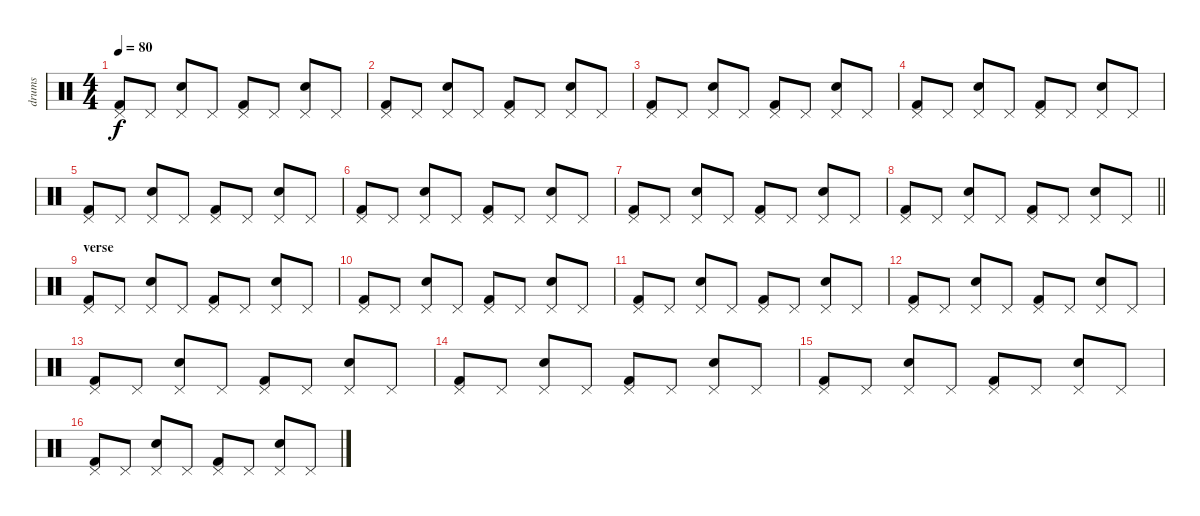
\track ("drums" "drums") {instrument percussion}
\staff {score}
\articulation defaults
\ts (4 4)
\tempo 80
\clef neutral
\ks c
("Kick (hit) 2" "Pedal Hi-Hat (hit)").8{dy f} "Pedal Hi-Hat (hit)".8 ("Electric Snare (hit)" "Pedal Hi-Hat (hit)").8 "Pedal Hi-Hat (hit)".8 ("Kick (hit) 2" "Pedal Hi-Hat (hit)").8 "Pedal Hi-Hat (hit)".8 ("Electric Snare (hit)" "Pedal Hi-Hat (hit)").8 "Pedal Hi-Hat (hit)".8 |
("Kick (hit) 2" "Pedal Hi-Hat (hit)").8 "Pedal Hi-Hat (hit)".8 ("Electric Snare (hit)" "Pedal Hi-Hat (hit)").8 "Pedal Hi-Hat (hit)".8 ("Kick (hit) 2" "Pedal Hi-Hat (hit)").8 "Pedal Hi-Hat (hit)".8 ("Electric Snare (hit)" "Pedal Hi-Hat (hit)").8 "Pedal Hi-Hat (hit)".8 |
("Kick (hit) 2" "Pedal Hi-Hat (hit)").8 "Pedal Hi-Hat (hit)".8 ("Electric Snare (hit)" "Pedal Hi-Hat (hit)").8 "Pedal Hi-Hat (hit)".8 ("Kick (hit) 2" "Pedal Hi-Hat (hit)").8 "Pedal Hi-Hat (hit)".8 ("Electric Snare (hit)" "Pedal Hi-Hat (hit)").8 "Pedal Hi-Hat (hit)".8 |
("Kick (hit) 2" "Pedal Hi-Hat (hit)").8 "Pedal Hi-Hat (hit)".8 ("Electric Snare (hit)" "Pedal Hi-Hat (hit)").8 "Pedal Hi-Hat (hit)".8 ("Kick (hit) 2" "Pedal Hi-Hat (hit)").8 "Pedal Hi-Hat (hit)".8 ("Electric Snare (hit)" "Pedal Hi-Hat (hit)").8 "Pedal Hi-Hat (hit)".8 |
("Kick (hit) 2" "Pedal Hi-Hat (hit)").8 "Pedal Hi-Hat (hit)".8 ("Electric Snare (hit)" "Pedal Hi-Hat (hit)").8 "Pedal Hi-Hat (hit)".8 ("Kick (hit) 2" "Pedal Hi-Hat (hit)").8 "Pedal Hi-Hat (hit)".8 ("Electric Snare (hit)" "Pedal Hi-Hat (hit)").8 "Pedal Hi-Hat (hit)".8 |
("Kick (hit) 2" "Pedal Hi-Hat (hit)").8 "Pedal Hi-Hat (hit)".8 ("Electric Snare (hit)" "Pedal Hi-Hat (hit)").8 "Pedal Hi-Hat (hit)".8 ("Kick (hit) 2" "Pedal Hi-Hat (hit)").8 "Pedal Hi-Hat (hit)".8 ("Electric Snare (hit)" "Pedal Hi-Hat (hit)").8 "Pedal Hi-Hat (hit)".8 |
("Kick (hit) 2" "Pedal Hi-Hat (hit)").8 "Pedal Hi-Hat (hit)".8 ("Electric Snare (hit)" "Pedal Hi-Hat (hit)").8 "Pedal Hi-Hat (hit)".8 ("Kick (hit) 2" "Pedal Hi-Hat (hit)").8 "Pedal Hi-Hat (hit)".8 ("Electric Snare (hit)" "Pedal Hi-Hat (hit)").8 "Pedal Hi-Hat (hit)".8 |
\barLineRight lightlight
("Kick (hit) 2" "Pedal Hi-Hat (hit)").8 "Pedal Hi-Hat (hit)".8 ("Electric Snare (hit)" "Pedal Hi-Hat (hit)").8 "Pedal Hi-Hat (hit)".8 ("Kick (hit) 2" "Pedal Hi-Hat (hit)").8 "Pedal Hi-Hat (hit)".8 ("Electric Snare (hit)" "Pedal Hi-Hat (hit)").8 "Pedal Hi-Hat (hit)".8 |
\section ("" "verse")
("Kick (hit) 2" "Pedal Hi-Hat (hit)").8 "Pedal Hi-Hat (hit)".8 ("Electric Snare (hit)" "Pedal Hi-Hat (hit)").8 "Pedal Hi-Hat (hit)".8 ("Kick (hit) 2" "Pedal Hi-Hat (hit)").8 "Pedal Hi-Hat (hit)".8 ("Electric Snare (hit)" "Pedal Hi-Hat (hit)").8 "Pedal Hi-Hat (hit)".8 |
("Kick (hit) 2" "Pedal Hi-Hat (hit)").8 "Pedal Hi-Hat (hit)".8 ("Electric Snare (hit)" "Pedal Hi-Hat (hit)").8 "Pedal Hi-Hat (hit)".8 ("Kick (hit) 2" "Pedal Hi-Hat (hit)").8 "Pedal Hi-Hat (hit)".8 ("Electric Snare (hit)" "Pedal Hi-Hat (hit)").8 "Pedal Hi-Hat (hit)".8 |
("Kick (hit) 2" "Pedal Hi-Hat (hit)").8 "Pedal Hi-Hat (hit)".8 ("Electric Snare (hit)" "Pedal Hi-Hat (hit)").8 "Pedal Hi-Hat (hit)".8 ("Kick (hit) 2" "Pedal Hi-Hat (hit)").8 "Pedal Hi-Hat (hit)".8 ("Electric Snare (hit)" "Pedal Hi-Hat (hit)").8 "Pedal Hi-Hat (hit)".8 |
("Kick (hit) 2" "Pedal Hi-Hat (hit)").8 "Pedal Hi-Hat (hit)".8 ("Electric Snare (hit)" "Pedal Hi-Hat (hit)").8 "Pedal Hi-Hat (hit)".8 ("Kick (hit) 2" "Pedal Hi-Hat (hit)").8 "Pedal Hi-Hat (hit)".8 ("Electric Snare (hit)" "Pedal Hi-Hat (hit)").8 "Pedal Hi-Hat (hit)".8 |
("Kick (hit) 2" "Pedal Hi-Hat (hit)").8 "Pedal Hi-Hat (hit)".8 ("Electric Snare (hit)" "Pedal Hi-Hat (hit)").8 "Pedal Hi-Hat (hit)".8 ("Kick (hit) 2" "Pedal Hi-Hat (hit)").8 "Pedal Hi-Hat (hit)".8 ("Electric Snare (hit)" "Pedal Hi-Hat (hit)").8 "Pedal Hi-Hat (hit)".8 |
("Kick (hit) 2" "Pedal Hi-Hat (hit)").8 "Pedal Hi-Hat (hit)".8 ("Electric Snare (hit)" "Pedal Hi-Hat (hit)").8 "Pedal Hi-Hat (hit)".8 ("Kick (hit) 2" "Pedal Hi-Hat (hit)").8 "Pedal Hi-Hat (hit)".8 ("Electric Snare (hit)" "Pedal Hi-Hat (hit)").8 "Pedal Hi-Hat (hit)".8 |
("Kick (hit) 2" "Pedal Hi-Hat (hit)").8 "Pedal Hi-Hat (hit)".8 ("Electric Snare (hit)" "Pedal Hi-Hat (hit)").8 "Pedal Hi-Hat (hit)".8 ("Kick (hit) 2" "Pedal Hi-Hat (hit)").8 "Pedal Hi-Hat (hit)".8 ("Electric Snare (hit)" "Pedal Hi-Hat (hit)").8 "Pedal Hi-Hat (hit)".8 |
("Kick (hit) 2" "Pedal Hi-Hat (hit)").8 "Pedal Hi-Hat (hit)".8 ("Electric Snare (hit)" "Pedal Hi-Hat (hit)").8 "Pedal Hi-Hat (hit)".8 ("Kick (hit) 2" "Pedal Hi-Hat (hit)").8 "Pedal Hi-Hat (hit)".8 ("Electric Snare (hit)" "Pedal Hi-Hat (hit)").8 "Pedal Hi-Hat (hit)".8
